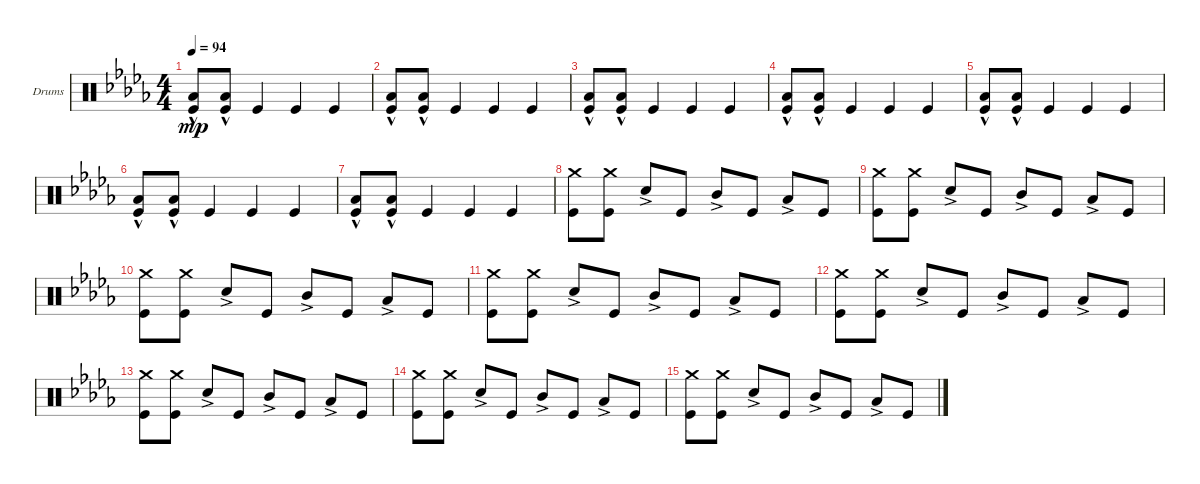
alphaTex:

\bracketExtendMode groupsimilarinstruments
\firstSystemTrackNameOrientation horizontal
\otherSystemsTrackNameOrientation horizontal
\track ("Drumkit" "Drums") {instrument percussion}
\staff {score}
\articulation defaults
\ts (4 4)
\tempo 94
\clef neutral
\ks bbminor
("Kick (hit)" "Low Tom (hit)"{hac}).8{dy mp} ("Kick (hit)" "Low Tom (hit)"{hac}).8 "Kick (hit)".4 "Kick (hit)".4 "Kick (hit)".4 |
("Kick (hit)" "Low Tom (hit)"{hac}).8 ("Kick (hit)" "Low Tom (hit)"{hac}).8 "Kick (hit)".4 "Kick (hit)".4 "Kick (hit)".4 |
("Kick (hit)" "Low Tom (hit)"{hac}).8 ("Kick (hit)" "Low Tom (hit)"{hac}).8 "Kick (hit)".4 "Kick (hit)".4 "Kick (hit)".4 |
("Kick (hit)" "Low Tom (hit)"{hac}).8 ("Kick (hit)" "Low Tom (hit)"{hac}).8 "Kick (hit)".4 "Kick (hit)".4 "Kick (hit)".4 |
("Kick (hit)" "Low Tom (hit)"{hac}).8 ("Kick (hit)" "Low Tom (hit)"{hac}).8 "Kick (hit)".4 "Kick (hit)".4 "Kick (hit)".4 |
("Kick (hit)" "Low Tom (hit)"{hac}).8 ("Kick (hit)" "Low Tom (hit)"{hac}).8 "Kick (hit)".4 "Kick (hit)".4 "Kick (hit)".4 |
("Kick (hit)" "Low Tom (hit)"{hac}).8 ("Kick (hit)" "Low Tom (hit)"{hac}).8 "Kick (hit)".4 "Kick (hit)".4 "Kick (hit)".4 |
("Kick (hit)" "Crash medium (hit)").8 ("Kick (hit)" "Crash medium (hit)").8 "Snare (hit) 2"{ac}.8 "Kick (hit)".8 "Mid Tom (hit)"{ac}.8 "Kick (hit)".8 "Low Tom (hit)"{ac}.8 "Kick (hit)".8 |
("Kick (hit)" "Crash medium (hit)").8 ("Kick (hit)" "Crash medium (hit)").8 "Snare (hit) 2"{ac}.8 "Kick (hit)".8 "Mid Tom (hit)"{ac}.8 "Kick (hit)".8 "Low Tom (hit)"{ac}.8 "Kick (hit)".8 |
("Kick (hit)" "Crash medium (hit)").8 ("Kick (hit)" "Crash medium (hit)").8 "Snare (hit) 2"{ac}.8 "Kick (hit)".8 "Mid Tom (hit)"{ac}.8 "Kick (hit)".8 "Low Tom (hit)"{ac}.8 "Kick (hit)".8 |
("Kick (hit)" "Crash medium (hit)").8 ("Kick (hit)" "Crash medium (hit)").8 "Snare (hit) 2"{ac}.8 "Kick (hit)".8 "Mid Tom (hit)"{ac}.8 "Kick (hit)".8 "Low Tom (hit)"{ac}.8 "Kick (hit)".8 |
("Kick (hit)" "Crash medium (hit)").8 ("Kick (hit)" "Crash medium (hit)").8 "Snare (hit) 2"{ac}.8 "Kick (hit)".8 "Mid Tom (hit)"{ac}.8 "Kick (hit)".8 "Low Tom (hit)"{ac}.8 "Kick (hit)".8 |
("Kick (hit)" "Crash medium (hit)").8 ("Kick (hit)" "Crash medium (hit)").8 "Snare (hit) 2"{ac}.8 "Kick (hit)".8 "Mid Tom (hit)"{ac}.8 "Kick (hit)".8 "Low Tom (hit)"{ac}.8 "Kick (hit)".8 |
("Kick (hit)" "Crash medium (hit)").8 ("Kick (hit)" "Crash medium (hit)").8 "Snare (hit) 2"{ac}.8 "Kick (hit)".8 "Mid Tom (hit)"{ac}.8 "Kick (hit)".8 "Low Tom (hit)"{ac}.8 "Kick (hit)".8 |
("Kick (hit)" "Crash medium (hit)").8 ("Kick (hit)" "Crash medium (hit)").8 "Snare (hit) 2"{ac}.8 "Kick (hit)".8 "Mid Tom (hit)"{ac}.8 "Kick (hit)".8 "Low Tom (hit)"{ac}.8 "Kick (hit)".8
